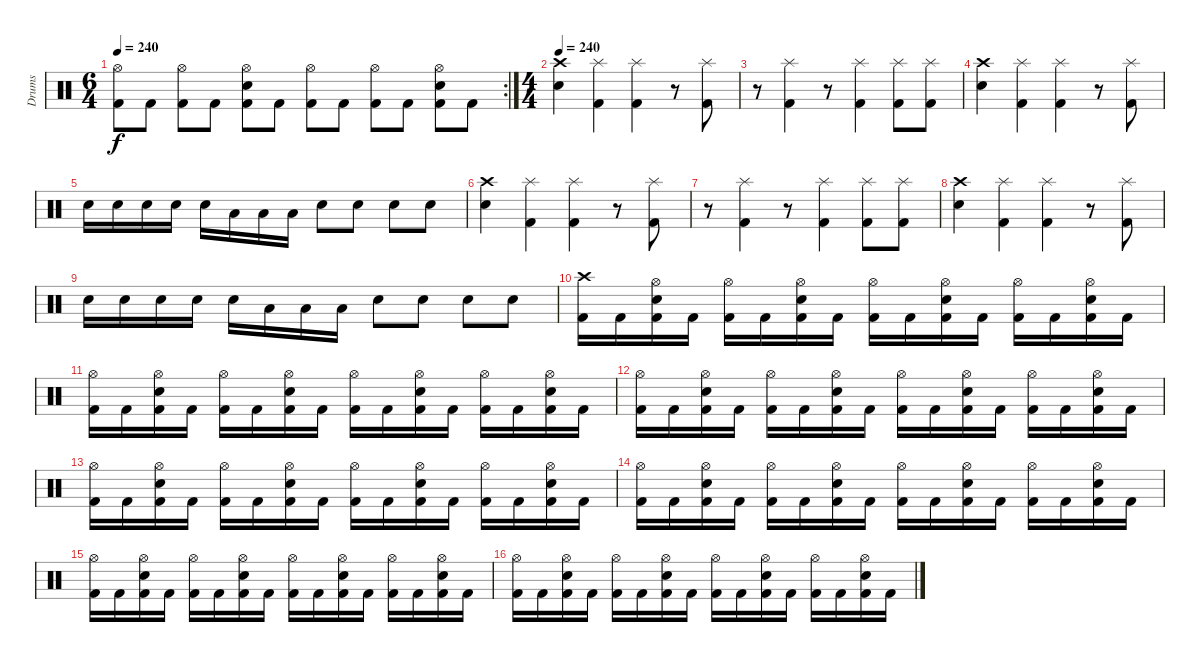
\track ("Drums" "Drums") {instrument percussion}
\staff {score}
\articulation defaults
\rc 2
\ts (6 4)
\tempo 240
\clef neutral
\ks c
("Hi-Hat (open)" "Kick (hit) 2").8{dy f} "Kick (hit) 2".8 ("Hi-Hat (open)" "Kick (hit) 2").8 "Kick (hit) 2".8 ("Hi-Hat (open)" "Snare (hit) 2" "Kick (hit) 2").8 "Kick (hit) 2".8 ("Hi-Hat (open)" "Kick (hit) 2").8 "Kick (hit) 2".8 ("Hi-Hat (open)" "Kick (hit) 2").8 "Kick (hit) 2".8 ("Hi-Hat (open)" "Snare (hit) 2" "Kick (hit) 2").8 "Kick (hit) 2".8 |
\ts (4 4)
\tempo 240
("Crash high (hit)" "Snare (hit) 2").4 ("Splash (hit)" "Kick (hit) 2").4 ("Splash (hit)" "Kick (hit) 2").4 r.8 ("Splash (hit)" "Kick (hit) 2").8 |
r.8 ("Splash (hit)" "Kick (hit) 2").4 r.8 ("Splash (hit)" "Kick (hit) 2").4 ("Splash (hit)" "Kick (hit) 2").8 ("Splash (hit)" "Kick (hit) 2").8 |
("Crash high (hit)" "Snare (hit) 2").4 ("Splash (hit)" "Kick (hit) 2").4 ("Splash (hit)" "Kick (hit) 2").4 r.8 ("Splash (hit)" "Kick (hit) 2").8 |
"Snare (hit) 2".16 "Snare (hit) 2".16 "Snare (hit) 2".16 "Snare (hit) 2".16 "Snare (hit) 2".16 "Low Tom (hit)".16 "Low Tom (hit)".16 "Low Tom (hit)".16 "Snare (hit) 2".8 "Snare (hit) 2".8 "Snare (hit) 2".8 "Snare (hit) 2".8 |
("Crash high (hit)" "Snare (hit) 2").4 ("Splash (hit)" "Kick (hit) 2").4 ("Splash (hit)" "Kick (hit) 2").4 r.8 ("Splash (hit)" "Kick (hit) 2").8 |
r.8 ("Splash (hit)" "Kick (hit) 2").4 r.8 ("Splash (hit)" "Kick (hit) 2").4 ("Splash (hit)" "Kick (hit) 2").8 ("Splash (hit)" "Kick (hit) 2").8 |
("Crash high (hit)" "Snare (hit) 2").4 ("Splash (hit)" "Kick (hit) 2").4 ("Splash (hit)" "Kick (hit) 2").4 r.8 ("Splash (hit)" "Kick (hit) 2").8 |
"Snare (hit) 2".16 "Snare (hit) 2".16 "Snare (hit) 2".16 "Snare (hit) 2".16 "Snare (hit) 2".16 "Low Tom (hit)".16 "Low Tom (hit)".16 "Low Tom (hit)".16 "Snare (hit) 2".8 "Snare (hit) 2".8 "Snare (hit) 2".8 "Snare (hit) 2".8 |
("Crash high (hit)" "Kick (hit) 2").16 "Kick (hit) 2".16 ("Hi-Hat (open)" "Snare (hit) 2" "Kick (hit) 2").16 "Kick (hit) 2".16 ("Hi-Hat (open)" "Kick (hit) 2").16 "Kick (hit) 2".16 ("Hi-Hat (open)" "Snare (hit) 2" "Kick (hit) 2").16 "Kick (hit) 2".16 ("Hi-Hat (open)" "Kick (hit) 2").16 "Kick (hit) 2".16 ("Hi-Hat (open)" "Snare (hit) 2" "Kick (hit) 2").16 "Kick (hit) 2".16 ("Hi-Hat (open)" "Kick (hit) 2").16 "Kick (hit) 2".16 ("Hi-Hat (open)" "Snare (hit) 2" "Kick (hit) 2").16 "Kick (hit) 2".16 |
("Hi-Hat (open)" "Kick (hit) 2").16 "Kick (hit) 2".16 ("Hi-Hat (open)" "Snare (hit) 2" "Kick (hit) 2").16 "Kick (hit) 2".16 ("Hi-Hat (open)" "Kick (hit) 2").16 "Kick (hit) 2".16 ("Hi-Hat (open)" "Snare (hit) 2" "Kick (hit) 2").16 "Kick (hit) 2".16 ("Hi-Hat (open)" "Kick (hit) 2").16 "Kick (hit) 2".16 ("Hi-Hat (open)" "Snare (hit) 2" "Kick (hit) 2").16 "Kick (hit) 2".16 ("Hi-Hat (open)" "Kick (hit) 2").16 "Kick (hit) 2".16 ("Hi-Hat (open)" "Snare (hit) 2" "Kick (hit) 2").16 "Kick (hit) 2".16 |
("Hi-Hat (open)" "Kick (hit) 2").16 "Kick (hit) 2".16 ("Hi-Hat (open)" "Snare (hit) 2" "Kick (hit) 2").16 "Kick (hit) 2".16 ("Hi-Hat (open)" "Kick (hit) 2").16 "Kick (hit) 2".16 ("Hi-Hat (open)" "Snare (hit) 2" "Kick (hit) 2").16 "Kick (hit) 2".16 ("Hi-Hat (open)" "Kick (hit) 2").16 "Kick (hit) 2".16 ("Hi-Hat (open)" "Snare (hit) 2" "Kick (hit) 2").16 "Kick (hit) 2".16 ("Hi-Hat (open)" "Kick (hit) 2").16 "Kick (hit) 2".16 ("Hi-Hat (open)" "Snare (hit) 2" "Kick (hit) 2").16 "Kick (hit) 2".16 |
("Hi-Hat (open)" "Kick (hit) 2").16 "Kick (hit) 2".16 ("Hi-Hat (open)" "Snare (hit) 2" "Kick (hit) 2").16 "Kick (hit) 2".16 ("Hi-Hat (open)" "Kick (hit) 2").16 "Kick (hit) 2".16 ("Hi-Hat (open)" "Snare (hit) 2" "Kick (hit) 2").16 "Kick (hit) 2".16 ("Hi-Hat (open)" "Kick (hit) 2").16 "Kick (hit) 2".16 ("Hi-Hat (open)" "Snare (hit) 2" "Kick (hit) 2").16 "Kick (hit) 2".16 ("Hi-Hat (open)" "Kick (hit) 2").16 "Kick (hit) 2".16 ("Hi-Hat (open)" "Snare (hit) 2" "Kick (hit) 2").16 "Kick (hit) 2".16 |
("Hi-Hat (open)" "Kick (hit) 2").16 "Kick (hit) 2".16 ("Hi-Hat (open)" "Snare (hit) 2" "Kick (hit) 2").16 "Kick (hit) 2".16 ("Hi-Hat (open)" "Kick (hit) 2").16 "Kick (hit) 2".16 ("Hi-Hat (open)" "Snare (hit) 2" "Kick (hit) 2").16 "Kick (hit) 2".16 ("Hi-Hat (open)" "Kick (hit) 2").16 "Kick (hit) 2".16 ("Hi-Hat (open)" "Snare (hit) 2" "Kick (hit) 2").16 "Kick (hit) 2".16 ("Hi-Hat (open)" "Kick (hit) 2").16 "Kick (hit) 2".16 ("Hi-Hat (open)" "Snare (hit) 2" "Kick (hit) 2").16 "Kick (hit) 2".16 |
("Hi-Hat (open)" "Kick (hit) 2").16 "Kick (hit) 2".16 ("Hi-Hat (open)" "Snare (hit) 2" "Kick (hit) 2").16 "Kick (hit) 2".16 ("Hi-Hat (open)" "Kick (hit) 2").16 "Kick (hit) 2".16 ("Hi-Hat (open)" "Snare (hit) 2" "Kick (hit) 2").16 "Kick (hit) 2".16 ("Hi-Hat (open)" "Kick (hit) 2").16 "Kick (hit) 2".16 ("Hi-Hat (open)" "Snare (hit) 2" "Kick (hit) 2").16 "Kick (hit) 2".16 ("Hi-Hat (open)" "Kick (hit) 2").16 "Kick (hit) 2".16 ("Hi-Hat (open)" "Snare (hit) 2" "Kick (hit) 2").16 "Kick (hit) 2".16 |
("Hi-Hat (open)" "Kick (hit) 2").16 "Kick (hit) 2".16 ("Hi-Hat (open)" "Snare (hit) 2" "Kick (hit) 2").16 "Kick (hit) 2".16 ("Hi-Hat (open)" "Kick (hit) 2").16 "Kick (hit) 2".16 ("Hi-Hat (open)" "Snare (hit) 2" "Kick (hit) 2").16 "Kick (hit) 2".16 ("Hi-Hat (open)" "Kick (hit) 2").16 "Kick (hit) 2".16 ("Hi-Hat (open)" "Snare (hit) 2" "Kick (hit) 2").16 "Kick (hit) 2".16 ("Hi-Hat (open)" "Kick (hit) 2").16 "Kick (hit) 2".16 ("Hi-Hat (open)" "Snare (hit) 2" "Kick (hit) 2").16 "Kick (hit) 2".16
